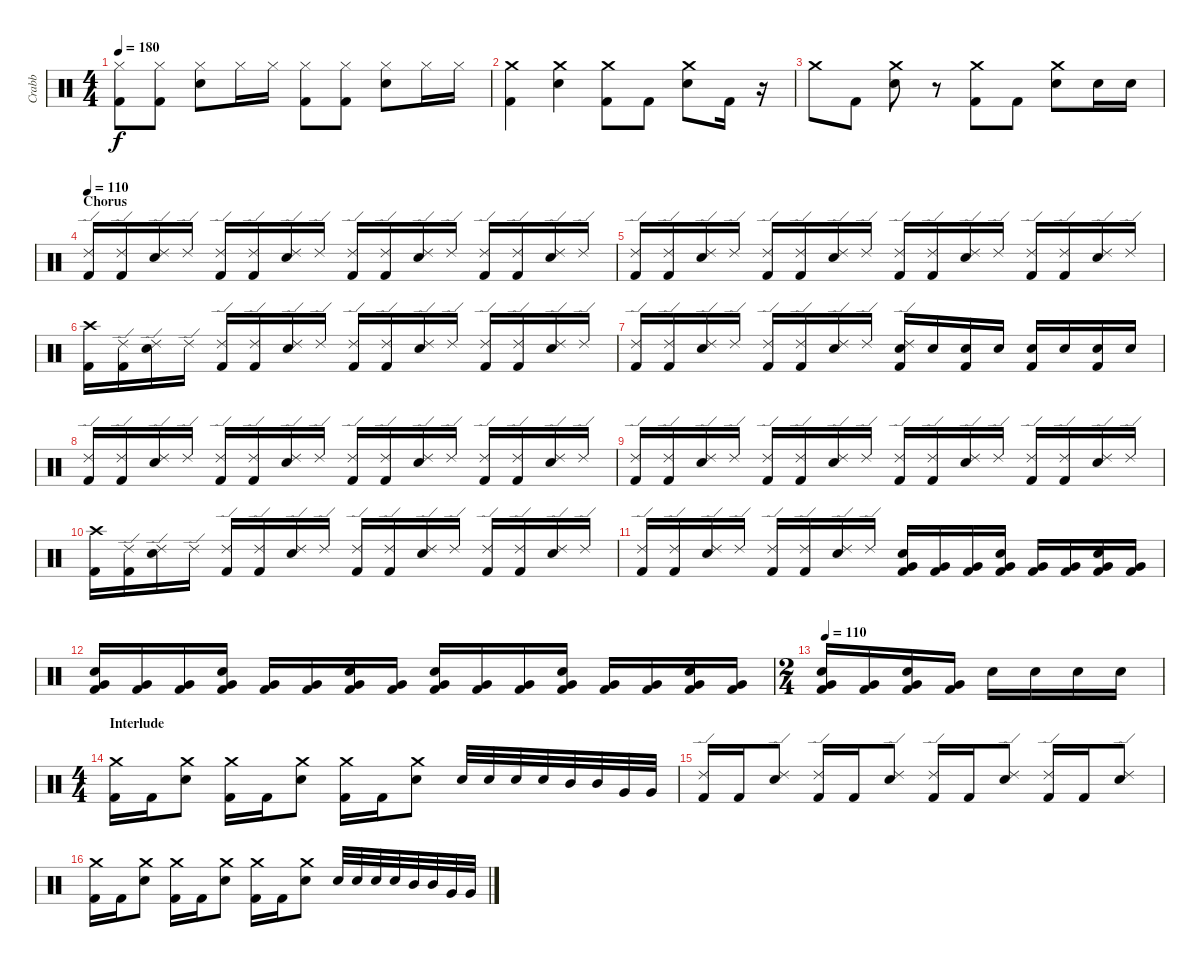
\track ("Crabb" "Crabb") {instrument percussion}
\staff {score}
\articulation defaults
\ts (4 4)
\tempo 180
\clef neutral
\ks c
("Hi-Hat (closed)" "Kick (hit) 2").8{dy f} ("Hi-Hat (closed)" "Kick (hit) 2").8 ("Hi-Hat (closed)" "Electric Snare (hit)").8 "Hi-Hat (closed)".16 "Hi-Hat (closed)".16 ("Hi-Hat (closed)" "Kick (hit) 2").8 ("Hi-Hat (closed)" "Kick (hit) 2").8 ("Hi-Hat (closed)" "Electric Snare (hit)").8 "Hi-Hat (closed)".16 "Hi-Hat (closed)".16 |
("Crash medium (hit)" "Kick (hit) 2").4 ("Crash medium (hit)" "Electric Snare (hit)").4 ("Crash medium (hit)" "Kick (hit) 2").8 "Kick (hit) 2".8 ("Crash medium (hit)" "Electric Snare (hit)").8 "Kick (hit) 2".16 r.16 |
"Crash medium (hit)".8 "Kick (hit) 2".8 ("Crash medium (hit)" "Electric Snare (hit)").8 r.8 ("Crash medium (hit)" "Kick (hit) 2").8 "Kick (hit) 2".8 ("Crash medium (hit)" "Electric Snare (hit)").8 "Electric Snare (hit)".16 "Electric Snare (hit)".16 |
\section ("" "Chorus")
\tempo 101
\tempo 110
("Ride (edge) 2" "Kick (hit) 2").16 ("Ride (edge) 2" "Kick (hit) 2").16 ("Ride (edge) 2" "Electric Snare (hit)").16 "Ride (edge) 2".16 ("Ride (edge) 2" "Kick (hit) 2").16 ("Ride (edge) 2" "Kick (hit) 2").16 ("Ride (edge) 2" "Electric Snare (hit)").16 "Ride (edge) 2".16 ("Ride (edge) 2" "Kick (hit) 2").16 ("Ride (edge) 2" "Kick (hit) 2").16 ("Ride (edge) 2" "Electric Snare (hit)").16 "Ride (edge) 2".16 ("Ride (edge) 2" "Kick (hit) 2").16 ("Ride (edge) 2" "Kick (hit) 2").16 ("Ride (edge) 2" "Electric Snare (hit)").16 "Ride (edge) 2".16 |
("Ride (edge) 2" "Kick (hit) 2").16 ("Ride (edge) 2" "Kick (hit) 2").16 ("Ride (edge) 2" "Electric Snare (hit)").16 "Ride (edge) 2".16 ("Ride (edge) 2" "Kick (hit) 2").16 ("Ride (edge) 2" "Kick (hit) 2").16 ("Ride (edge) 2" "Electric Snare (hit)").16 "Ride (edge) 2".16 ("Ride (edge) 2" "Kick (hit) 2").16 ("Ride (edge) 2" "Kick (hit) 2").16 ("Ride (edge) 2" "Electric Snare (hit)").16 "Ride (edge) 2".16 ("Ride (edge) 2" "Kick (hit) 2").16 ("Ride (edge) 2" "Kick (hit) 2").16 ("Ride (edge) 2" "Electric Snare (hit)").16 "Ride (edge) 2".16 |
("Crash high (hit)" "Kick (hit) 2").16 ("Ride (edge) 2" "Kick (hit) 2").16 ("Ride (edge) 2" "Electric Snare (hit)").16 "Ride (edge) 2".16 ("Ride (edge) 2" "Kick (hit) 2").16 ("Ride (edge) 2" "Kick (hit) 2").16 ("Ride (edge) 2" "Electric Snare (hit)").16 "Ride (edge) 2".16 ("Ride (edge) 2" "Kick (hit) 2").16 ("Ride (edge) 2" "Kick (hit) 2").16 ("Ride (edge) 2" "Electric Snare (hit)").16 "Ride (edge) 2".16 ("Ride (edge) 2" "Kick (hit) 2").16 ("Ride (edge) 2" "Kick (hit) 2").16 ("Ride (edge) 2" "Electric Snare (hit)").16 "Ride (edge) 2".16 |
("Ride (edge) 2" "Kick (hit) 2").16 ("Ride (edge) 2" "Kick (hit) 2").16 ("Ride (edge) 2" "Electric Snare (hit)").16 "Ride (edge) 2".16 ("Ride (edge) 2" "Kick (hit) 2").16 ("Ride (edge) 2" "Kick (hit) 2").16 ("Ride (edge) 2" "Electric Snare (hit)").16 "Ride (edge) 2".16 ("Ride (edge) 2" "Electric Snare (hit)" "Kick (hit) 2").16 "Electric Snare (hit)".16 ("Electric Snare (hit)" "Kick (hit) 2").16 "Electric Snare (hit)".16 ("Electric Snare (hit)" "Kick (hit) 2").16 "Electric Snare (hit)".16 ("Electric Snare (hit)" "Kick (hit) 2").16 "Electric Snare (hit)".16 |
("Ride (edge) 2" "Kick (hit) 2").16 ("Ride (edge) 2" "Kick (hit) 2").16 ("Ride (edge) 2" "Electric Snare (hit)").16 "Ride (edge) 2".16 ("Ride (edge) 2" "Kick (hit) 2").16 ("Ride (edge) 2" "Kick (hit) 2").16 ("Ride (edge) 2" "Electric Snare (hit)").16 "Ride (edge) 2".16 ("Ride (edge) 2" "Kick (hit) 2").16 ("Ride (edge) 2" "Kick (hit) 2").16 ("Ride (edge) 2" "Electric Snare (hit)").16 "Ride (edge) 2".16 ("Ride (edge) 2" "Kick (hit) 2").16 ("Ride (edge) 2" "Kick (hit) 2").16 ("Ride (edge) 2" "Electric Snare (hit)").16 "Ride (edge) 2".16 |
("Ride (edge) 2" "Kick (hit) 2").16 ("Ride (edge) 2" "Kick (hit) 2").16 ("Ride (edge) 2" "Electric Snare (hit)").16 "Ride (edge) 2".16 ("Ride (edge) 2" "Kick (hit) 2").16 ("Ride (edge) 2" "Kick (hit) 2").16 ("Ride (edge) 2" "Electric Snare (hit)").16 "Ride (edge) 2".16 ("Ride (edge) 2" "Kick (hit) 2").16 ("Ride (edge) 2" "Kick (hit) 2").16 ("Ride (edge) 2" "Electric Snare (hit)").16 "Ride (edge) 2".16 ("Ride (edge) 2" "Kick (hit) 2").16 ("Ride (edge) 2" "Kick (hit) 2").16 ("Ride (edge) 2" "Electric Snare (hit)").16 "Ride (edge) 2".16 |
("Crash high (hit)" "Kick (hit) 2").16 ("Ride (edge) 2" "Kick (hit) 2").16 ("Ride (edge) 2" "Electric Snare (hit)").16 "Ride (edge) 2".16 ("Ride (edge) 2" "Kick (hit) 2").16 ("Ride (edge) 2" "Kick (hit) 2").16 ("Ride (edge) 2" "Electric Snare (hit)").16 "Ride (edge) 2".16 ("Ride (edge) 2" "Kick (hit) 2").16 ("Ride (edge) 2" "Kick (hit) 2").16 ("Ride (edge) 2" "Electric Snare (hit)").16 "Ride (edge) 2".16 ("Ride (edge) 2" "Kick (hit) 2").16 ("Ride (edge) 2" "Kick (hit) 2").16 ("Ride (edge) 2" "Electric Snare (hit)").16 "Ride (edge) 2".16 |
("Ride (edge) 2" "Kick (hit) 2").16 ("Ride (edge) 2" "Kick (hit) 2").16 ("Ride (edge) 2" "Electric Snare (hit)").16 "Ride (edge) 2".16 ("Ride (edge) 2" "Kick (hit) 2").16 ("Ride (edge) 2" "Kick (hit) 2").16 ("Ride (edge) 2" "Electric Snare (hit)").16 "Ride (edge) 2".16 ("Electric Snare (hit)" "Very Low Tom (hit)" "Kick (hit) 2").16 ("Very Low Tom (hit)" "Kick (hit) 2").16 ("Very Low Tom (hit)" "Kick (hit) 2").16 ("Electric Snare (hit)" "Very Low Tom (hit)" "Kick (hit) 2").16 ("Very Low Tom (hit)" "Kick (hit) 2").16 ("Very Low Tom (hit)" "Kick (hit) 2").16 ("Electric Snare (hit)" "Very Low Tom (hit)" "Kick (hit) 2").16 ("Very Low Tom (hit)" "Kick (hit) 2").16 |
("Electric Snare (hit)" "Very Low Tom (hit)" "Kick (hit) 2").16 ("Very Low Tom (hit)" "Kick (hit) 2").16 ("Very Low Tom (hit)" "Kick (hit) 2").16 ("Electric Snare (hit)" "Very Low Tom (hit)" "Kick (hit) 2").16 ("Very Low Tom (hit)" "Kick (hit) 2").16 ("Very Low Tom (hit)" "Kick (hit) 2").16 ("Electric Snare (hit)" "Very Low Tom (hit)" "Kick (hit) 2").16 ("Very Low Tom (hit)" "Kick (hit) 2").16 ("Electric Snare (hit)" "Very Low Tom (hit)" "Kick (hit) 2").16 ("Very Low Tom (hit)" "Kick (hit) 2").16 ("Very Low Tom (hit)" "Kick (hit) 2").16 ("Electric Snare (hit)" "Very Low Tom (hit)" "Kick (hit) 2").16 ("Very Low Tom (hit)" "Kick (hit) 2").16 ("Very Low Tom (hit)" "Kick (hit) 2").16 ("Electric Snare (hit)" "Very Low Tom (hit)" "Kick (hit) 2").16 ("Very Low Tom (hit)" "Kick (hit) 2").16 |
\ts (2 4)
\tempo 110
("Electric Snare (hit)" "Very Low Tom (hit)" "Kick (hit) 2").16 ("Very Low Tom (hit)" "Kick (hit) 2").16 ("Electric Snare (hit)" "Very Low Tom (hit)" "Kick (hit) 2").16 ("Very Low Tom (hit)" "Kick (hit) 2").16 "Electric Snare (hit)".16 "Electric Snare (hit)".16 "Electric Snare (hit)".16 "Electric Snare (hit)".16 |
\ts (4 4)
\section ("" "Interlude")
("Crash medium (hit)" "Kick (hit) 2").16 "Kick (hit) 2".16 ("Crash medium (hit)" "Electric Snare (hit)").8 ("Crash medium (hit)" "Kick (hit) 2").16 "Kick (hit) 2".16 ("Crash medium (hit)" "Electric Snare (hit)").8 ("Crash medium (hit)" "Kick (hit) 2").16 "Kick (hit) 2".16 ("Crash medium (hit)" "Electric Snare (hit)").8 "Electric Snare (hit)".32 "Electric Snare (hit)".32 "Electric Snare (hit)".32 "Electric Snare (hit)".32 "Mid Tom (hit)".32 "Mid Tom (hit)".32 "Very Low Tom (hit)".32 "Very Low Tom (hit)".32 |
("Ride (edge) 2" "Kick (hit) 2").16 "Kick (hit) 2".16 ("Ride (edge) 2" "Electric Snare (hit)").8 ("Ride (edge) 2" "Kick (hit) 2").16 "Kick (hit) 2".16 ("Ride (edge) 2" "Electric Snare (hit)").8 ("Ride (edge) 2" "Kick (hit) 2").16 "Kick (hit) 2".16 ("Ride (edge) 2" "Electric Snare (hit)").8 ("Ride (edge) 2" "Kick (hit) 2").16 "Kick (hit) 2".16 ("Ride (edge) 2" "Electric Snare (hit)").8 |
("Crash medium (hit)" "Kick (hit) 2").16 "Kick (hit) 2".16 ("Crash medium (hit)" "Electric Snare (hit)").8 ("Crash medium (hit)" "Kick (hit) 2").16 "Kick (hit) 2".16 ("Crash medium (hit)" "Electric Snare (hit)").8 ("Crash medium (hit)" "Kick (hit) 2").16 "Kick (hit) 2".16 ("Crash medium (hit)" "Electric Snare (hit)").8 "Electric Snare (hit)".32 "Electric Snare (hit)".32 "Electric Snare (hit)".32 "Electric Snare (hit)".32 "Mid Tom (hit)".32 "Mid Tom (hit)".32 "Very Low Tom (hit)".32 "Very Low Tom (hit)".32
